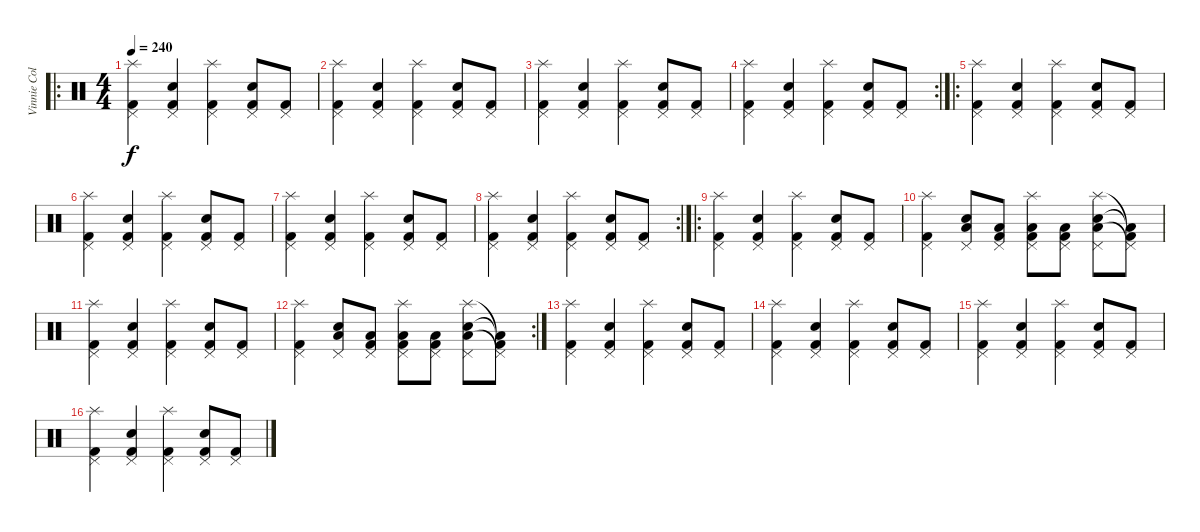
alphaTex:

\track ("Vinnie Colaiuta" "Vinnie Col") {instrument percussion}
\staff {score}
\articulation defaults
\ro
\ts (4 4)
\tempo 240
\clef neutral
\ks c
("Splash (hit)" "Kick (hit) 2" "Pedal Hi-Hat (hit)").4{dy f} ("Snare (hit) 2" "Kick (hit) 2" "Pedal Hi-Hat (hit)").4 ("Splash (hit)" "Kick (hit) 2" "Pedal Hi-Hat (hit)").4 ("Snare (hit) 2" "Kick (hit) 2" "Pedal Hi-Hat (hit)").8 ("Kick (hit) 2" "Pedal Hi-Hat (hit)").8 |
("Splash (hit)" "Kick (hit) 2" "Pedal Hi-Hat (hit)").4 ("Snare (hit) 2" "Kick (hit) 2" "Pedal Hi-Hat (hit)").4 ("Splash (hit)" "Kick (hit) 2" "Pedal Hi-Hat (hit)").4 ("Snare (hit) 2" "Kick (hit) 2" "Pedal Hi-Hat (hit)").8 ("Kick (hit) 2" "Pedal Hi-Hat (hit)").8 |
("Splash (hit)" "Kick (hit) 2" "Pedal Hi-Hat (hit)").4 ("Snare (hit) 2" "Kick (hit) 2" "Pedal Hi-Hat (hit)").4 ("Splash (hit)" "Kick (hit) 2" "Pedal Hi-Hat (hit)").4 ("Snare (hit) 2" "Kick (hit) 2" "Pedal Hi-Hat (hit)").8 ("Kick (hit) 2" "Pedal Hi-Hat (hit)").8 |
\rc 2
("Splash (hit)" "Kick (hit) 2" "Pedal Hi-Hat (hit)").4 ("Snare (hit) 2" "Kick (hit) 2" "Pedal Hi-Hat (hit)").4 ("Splash (hit)" "Kick (hit) 2" "Pedal Hi-Hat (hit)").4 ("Snare (hit) 2" "Kick (hit) 2" "Pedal Hi-Hat (hit)").8 ("Kick (hit) 2" "Pedal Hi-Hat (hit)").8 |
\ro
("Splash (hit)" "Kick (hit) 2" "Pedal Hi-Hat (hit)").4 ("Snare (hit) 2" "Kick (hit) 2" "Pedal Hi-Hat (hit)").4 ("Splash (hit)" "Kick (hit) 2" "Pedal Hi-Hat (hit)").4 ("Snare (hit) 2" "Kick (hit) 2" "Pedal Hi-Hat (hit)").8 ("Kick (hit) 2" "Pedal Hi-Hat (hit)").8 |
("Splash (hit)" "Kick (hit) 2" "Pedal Hi-Hat (hit)").4 ("Snare (hit) 2" "Kick (hit) 2" "Pedal Hi-Hat (hit)").4 ("Splash (hit)" "Kick (hit) 2" "Pedal Hi-Hat (hit)").4 ("Snare (hit) 2" "Kick (hit) 2" "Pedal Hi-Hat (hit)").8 ("Kick (hit) 2" "Pedal Hi-Hat (hit)").8 |
("Splash (hit)" "Kick (hit) 2" "Pedal Hi-Hat (hit)").4 ("Snare (hit) 2" "Kick (hit) 2" "Pedal Hi-Hat (hit)").4 ("Splash (hit)" "Kick (hit) 2" "Pedal Hi-Hat (hit)").4 ("Snare (hit) 2" "Kick (hit) 2" "Pedal Hi-Hat (hit)").8 ("Kick (hit) 2" "Pedal Hi-Hat (hit)").8 |
\rc 2
("Splash (hit)" "Kick (hit) 2" "Pedal Hi-Hat (hit)").4 ("Snare (hit) 2" "Kick (hit) 2" "Pedal Hi-Hat (hit)").4 ("Splash (hit)" "Kick (hit) 2" "Pedal Hi-Hat (hit)").4 ("Snare (hit) 2" "Kick (hit) 2" "Pedal Hi-Hat (hit)").8 ("Kick (hit) 2" "Pedal Hi-Hat (hit)").8 |
\ro
("Splash (hit)" "Kick (hit) 2" "Pedal Hi-Hat (hit)").4 ("Snare (hit) 2" "Kick (hit) 2" "Pedal Hi-Hat (hit)").4 ("Splash (hit)" "Kick (hit) 2" "Pedal Hi-Hat (hit)").4 ("Snare (hit) 2" "Kick (hit) 2" "Pedal Hi-Hat (hit)").8 ("Kick (hit) 2" "Pedal Hi-Hat (hit)").8 |
("Splash (hit)" "Kick (hit) 2" "Pedal Hi-Hat (hit)").4 ("Snare (hit) 2" "Low Floor Tom (hit)" "Pedal Hi-Hat (hit)").8 ("Kick (hit) 2" "Low Floor Tom (hit)" "Pedal Hi-Hat (hit)").8 ("Splash (hit)" "Kick (hit) 2" "Low Floor Tom (hit)" "Pedal Hi-Hat (hit)").8 ("Kick (hit) 2" "Low Floor Tom (hit)" "Pedal Hi-Hat (hit)").8 ("Splash (hit)" "Snare (hit) 2" "Low Floor Tom (hit)" "Pedal Hi-Hat (hit)").8 ("Kick (hit) 2"{t} "Low Floor Tom (hit)"{t} "Pedal Hi-Hat (hit)"{t}).8 |
("Splash (hit)" "Kick (hit) 2" "Pedal Hi-Hat (hit)").4 ("Snare (hit) 2" "Kick (hit) 2" "Pedal Hi-Hat (hit)").4 ("Splash (hit)" "Kick (hit) 2" "Pedal Hi-Hat (hit)").4 ("Snare (hit) 2" "Kick (hit) 2" "Pedal Hi-Hat (hit)").8 ("Kick (hit) 2" "Pedal Hi-Hat (hit)").8 |
\rc 2
("Splash (hit)" "Kick (hit) 2" "Pedal Hi-Hat (hit)").4 ("Snare (hit) 2" "Low Floor Tom (hit)" "Pedal Hi-Hat (hit)").8 ("Kick (hit) 2" "Low Floor Tom (hit)" "Pedal Hi-Hat (hit)").8 ("Splash (hit)" "Kick (hit) 2" "Low Floor Tom (hit)" "Pedal Hi-Hat (hit)").8 ("Kick (hit) 2" "Low Floor Tom (hit)" "Pedal Hi-Hat (hit)").8 ("Splash (hit)" "Snare (hit) 2" "Low Floor Tom (hit)" "Pedal Hi-Hat (hit)").8 ("Kick (hit) 2"{t} "Low Floor Tom (hit)"{t} "Pedal Hi-Hat (hit)"{t}).8 |
("Splash (hit)" "Kick (hit) 2" "Pedal Hi-Hat (hit)").4 ("Snare (hit) 2" "Kick (hit) 2" "Pedal Hi-Hat (hit)").4 ("Splash (hit)" "Kick (hit) 2" "Pedal Hi-Hat (hit)").4 ("Snare (hit) 2" "Kick (hit) 2" "Pedal Hi-Hat (hit)").8 ("Kick (hit) 2" "Pedal Hi-Hat (hit)").8 |
("Splash (hit)" "Kick (hit) 2" "Pedal Hi-Hat (hit)").4 ("Snare (hit) 2" "Kick (hit) 2" "Pedal Hi-Hat (hit)").4 ("Splash (hit)" "Kick (hit) 2" "Pedal Hi-Hat (hit)").4 ("Snare (hit) 2" "Kick (hit) 2" "Pedal Hi-Hat (hit)").8 ("Kick (hit) 2" "Pedal Hi-Hat (hit)").8 |
("Splash (hit)" "Kick (hit) 2" "Pedal Hi-Hat (hit)").4 ("Snare (hit) 2" "Kick (hit) 2" "Pedal Hi-Hat (hit)").4 ("Splash (hit)" "Kick (hit) 2" "Pedal Hi-Hat (hit)").4 ("Snare (hit) 2" "Kick (hit) 2" "Pedal Hi-Hat (hit)").8 ("Kick (hit) 2" "Pedal Hi-Hat (hit)").8 |
("Splash (hit)" "Kick (hit) 2" "Pedal Hi-Hat (hit)").4 ("Snare (hit) 2" "Kick (hit) 2" "Pedal Hi-Hat (hit)").4 ("Splash (hit)" "Kick (hit) 2" "Pedal Hi-Hat (hit)").4 ("Snare (hit) 2" "Kick (hit) 2" "Pedal Hi-Hat (hit)").8 ("Kick (hit) 2" "Pedal Hi-Hat (hit)").8
